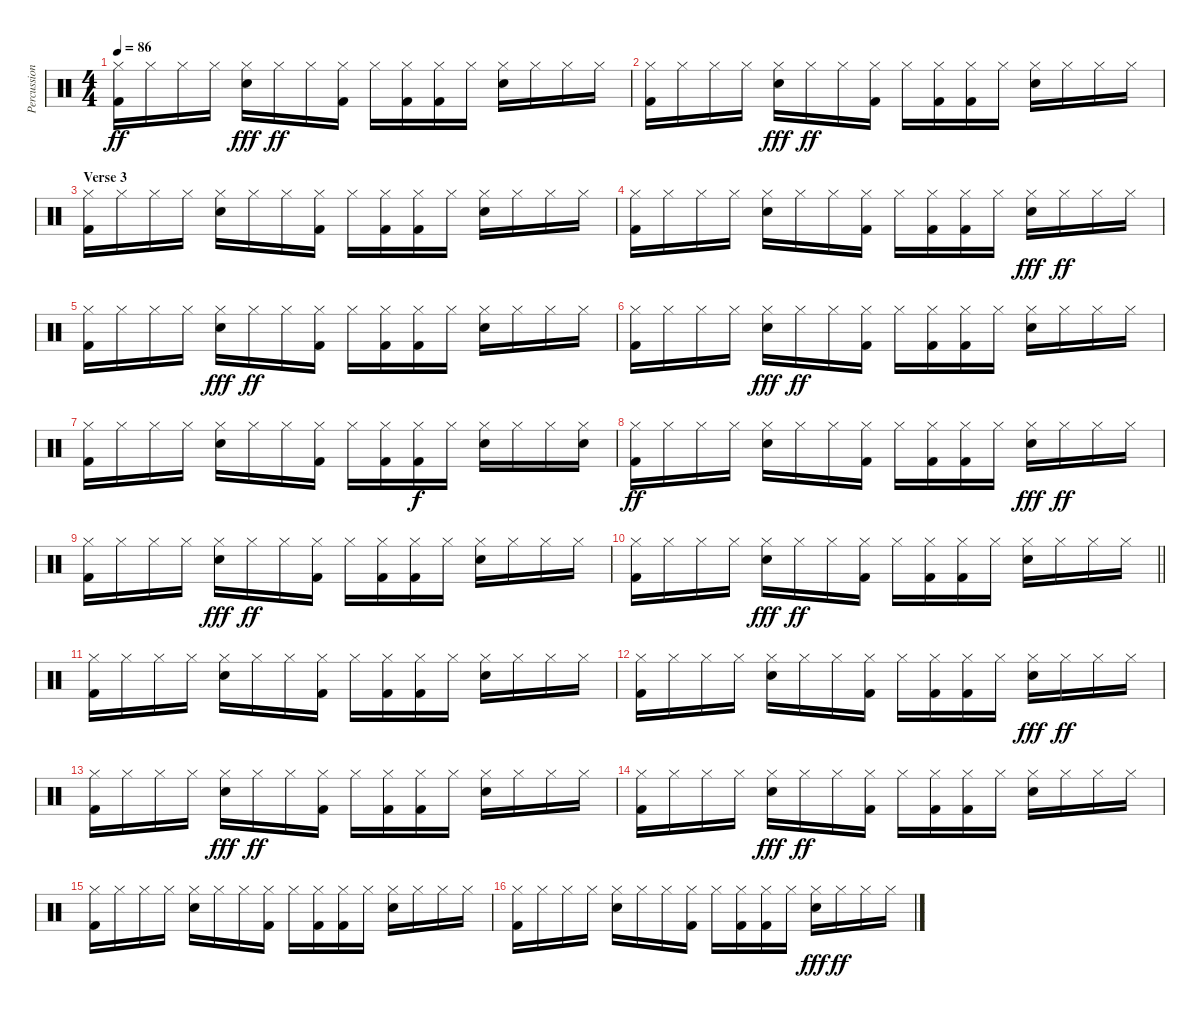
\track ("Percussion" "Percussion") {instrument percussion}
\staff {score}
\articulation defaults
\ts (4 4)
\tempo 86
\clef neutral
\ks c
("Hi-Hat (closed)" "Kick (hit) 2").16{dy ff} "Hi-Hat (closed)".16 "Hi-Hat (closed)".16 "Hi-Hat (closed)".16 ("Snare (hit) 2" "Hi-Hat (closed)").16{dy fff} "Hi-Hat (closed)".16{dy ff} "Hi-Hat (closed)".16 ("Hi-Hat (closed)" "Kick (hit) 2").16 "Hi-Hat (closed)".16 ("Kick (hit) 2" "Hi-Hat (closed)").16 ("Kick (hit) 2" "Hi-Hat (closed)").16 "Hi-Hat (closed)".16 ("Hi-Hat (closed)" "Snare (hit) 2").16 "Hi-Hat (closed)".16 "Hi-Hat (closed)".16 "Hi-Hat (closed)".16 |
("Hi-Hat (closed)" "Kick (hit) 2").16 "Hi-Hat (closed)".16 "Hi-Hat (closed)".16 "Hi-Hat (closed)".16 ("Snare (hit) 2" "Hi-Hat (closed)").16{dy fff} "Hi-Hat (closed)".16{dy ff} "Hi-Hat (closed)".16 ("Hi-Hat (closed)" "Kick (hit) 2").16 "Hi-Hat (closed)".16 ("Kick (hit) 2" "Hi-Hat (closed)").16 ("Kick (hit) 2" "Hi-Hat (closed)").16 "Hi-Hat (closed)".16 ("Hi-Hat (closed)" "Snare (hit) 2").16 "Hi-Hat (closed)".16 "Hi-Hat (closed)".16 "Hi-Hat (closed)".16 |
\section ("" "Verse 3")
("Hi-Hat (closed)" "Kick (hit) 2").16 "Hi-Hat (closed)".16 "Hi-Hat (closed)".16 "Hi-Hat (closed)".16 ("Hi-Hat (closed)" "Snare (hit) 2").16 "Hi-Hat (closed)".16 "Hi-Hat (closed)".16 ("Hi-Hat (closed)" "Kick (hit) 2").16 "Hi-Hat (closed)".16 ("Hi-Hat (closed)" "Kick (hit) 2").16 ("Hi-Hat (closed)" "Kick (hit) 2").16 "Hi-Hat (closed)".16 ("Hi-Hat (closed)" "Snare (hit) 2").16 "Hi-Hat (closed)".16 "Hi-Hat (closed)".16 "Hi-Hat (closed)".16 |
("Hi-Hat (closed)" "Kick (hit) 2").16 "Hi-Hat (closed)".16 "Hi-Hat (closed)".16 "Hi-Hat (closed)".16 ("Hi-Hat (closed)" "Snare (hit) 2").16 "Hi-Hat (closed)".16 "Hi-Hat (closed)".16 ("Hi-Hat (closed)" "Kick (hit) 2").16 "Hi-Hat (closed)".16 ("Hi-Hat (closed)" "Kick (hit) 2").16 ("Hi-Hat (closed)" "Kick (hit) 2").16 "Hi-Hat (closed)".16 ("Hi-Hat (closed)" "Snare (hit) 2").16{dy fff} "Hi-Hat (closed)".16{dy ff} "Hi-Hat (closed)".16 "Hi-Hat (closed)".16 |
("Hi-Hat (closed)" "Kick (hit) 2").16 "Hi-Hat (closed)".16 "Hi-Hat (closed)".16 "Hi-Hat (closed)".16 ("Snare (hit) 2" "Hi-Hat (closed)").16{dy fff} "Hi-Hat (closed)".16{dy ff} "Hi-Hat (closed)".16 ("Hi-Hat (closed)" "Kick (hit) 2").16 "Hi-Hat (closed)".16 ("Kick (hit) 2" "Hi-Hat (closed)").16 ("Kick (hit) 2" "Hi-Hat (closed)").16 "Hi-Hat (closed)".16 ("Hi-Hat (closed)" "Snare (hit) 2").16 "Hi-Hat (closed)".16 "Hi-Hat (closed)".16 "Hi-Hat (closed)".16 |
("Hi-Hat (closed)" "Kick (hit) 2").16 "Hi-Hat (closed)".16 "Hi-Hat (closed)".16 "Hi-Hat (closed)".16 ("Snare (hit) 2" "Hi-Hat (closed)").16{dy fff} "Hi-Hat (closed)".16{dy ff} "Hi-Hat (closed)".16 ("Hi-Hat (closed)" "Kick (hit) 2").16 "Hi-Hat (closed)".16 ("Kick (hit) 2" "Hi-Hat (closed)").16 ("Kick (hit) 2" "Hi-Hat (closed)").16 "Hi-Hat (closed)".16 ("Hi-Hat (closed)" "Snare (hit) 2").16 "Hi-Hat (closed)".16 "Hi-Hat (closed)".16 "Hi-Hat (closed)".16 |
("Hi-Hat (closed)" "Kick (hit) 2").16 "Hi-Hat (closed)".16 "Hi-Hat (closed)".16 "Hi-Hat (closed)".16 ("Hi-Hat (closed)" "Snare (hit) 2").16 "Hi-Hat (closed)".16 "Hi-Hat (closed)".16 ("Hi-Hat (closed)" "Kick (hit) 2").16 "Hi-Hat (closed)".16 ("Hi-Hat (closed)" "Kick (hit) 2").16 ("Hi-Hat (closed)" "Kick (hit) 2").16{dy f} "Hi-Hat (closed)".16 ("Hi-Hat (closed)" "Snare (hit) 2").16 "Hi-Hat (closed)".16 "Hi-Hat (closed)".16 ("Hi-Hat (closed)" "Snare (hit) 2").16 |
("Hi-Hat (closed)" "Kick (hit) 2").16{dy ff} "Hi-Hat (closed)".16 "Hi-Hat (closed)".16 "Hi-Hat (closed)".16 ("Hi-Hat (closed)" "Snare (hit) 2").16 "Hi-Hat (closed)".16 "Hi-Hat (closed)".16 ("Hi-Hat (closed)" "Kick (hit) 2").16 "Hi-Hat (closed)".16 ("Hi-Hat (closed)" "Kick (hit) 2").16 ("Hi-Hat (closed)" "Kick (hit) 2").16 "Hi-Hat (closed)".16 ("Hi-Hat (closed)" "Snare (hit) 2").16{dy fff} "Hi-Hat (closed)".16{dy ff} "Hi-Hat (closed)".16 "Hi-Hat (closed)".16 |
("Hi-Hat (closed)" "Kick (hit) 2").16 "Hi-Hat (closed)".16 "Hi-Hat (closed)".16 "Hi-Hat (closed)".16 ("Snare (hit) 2" "Hi-Hat (closed)").16{dy fff} "Hi-Hat (closed)".16{dy ff} "Hi-Hat (closed)".16 ("Hi-Hat (closed)" "Kick (hit) 2").16 "Hi-Hat (closed)".16 ("Kick (hit) 2" "Hi-Hat (closed)").16 ("Kick (hit) 2" "Hi-Hat (closed)").16 "Hi-Hat (closed)".16 ("Hi-Hat (closed)" "Snare (hit) 2").16 "Hi-Hat (closed)".16 "Hi-Hat (closed)".16 "Hi-Hat (closed)".16 |
\barLineRight lightlight
("Hi-Hat (closed)" "Kick (hit) 2").16 "Hi-Hat (closed)".16 "Hi-Hat (closed)".16 "Hi-Hat (closed)".16 ("Snare (hit) 2" "Hi-Hat (closed)").16{dy fff} "Hi-Hat (closed)".16{dy ff} "Hi-Hat (closed)".16 ("Hi-Hat (closed)" "Kick (hit) 2").16 "Hi-Hat (closed)".16 ("Kick (hit) 2" "Hi-Hat (closed)").16 ("Kick (hit) 2" "Hi-Hat (closed)").16 "Hi-Hat (closed)".16 ("Hi-Hat (closed)" "Snare (hit) 2").16 "Hi-Hat (closed)".16 "Hi-Hat (closed)".16 "Hi-Hat (closed)".16 |
("Hi-Hat (closed)" "Kick (hit) 2").16 "Hi-Hat (closed)".16 "Hi-Hat (closed)".16 "Hi-Hat (closed)".16 ("Hi-Hat (closed)" "Snare (hit) 2").16 "Hi-Hat (closed)".16 "Hi-Hat (closed)".16 ("Hi-Hat (closed)" "Kick (hit) 2").16 "Hi-Hat (closed)".16 ("Hi-Hat (closed)" "Kick (hit) 2").16 ("Hi-Hat (closed)" "Kick (hit) 2").16 "Hi-Hat (closed)".16 ("Hi-Hat (closed)" "Snare (hit) 2").16 "Hi-Hat (closed)".16 "Hi-Hat (closed)".16 "Hi-Hat (closed)".16 |
("Hi-Hat (closed)" "Kick (hit) 2").16 "Hi-Hat (closed)".16 "Hi-Hat (closed)".16 "Hi-Hat (closed)".16 ("Hi-Hat (closed)" "Snare (hit) 2").16 "Hi-Hat (closed)".16 "Hi-Hat (closed)".16 ("Hi-Hat (closed)" "Kick (hit) 2").16 "Hi-Hat (closed)".16 ("Hi-Hat (closed)" "Kick (hit) 2").16 ("Hi-Hat (closed)" "Kick (hit) 2").16 "Hi-Hat (closed)".16 ("Hi-Hat (closed)" "Snare (hit) 2").16{dy fff} "Hi-Hat (closed)".16{dy ff} "Hi-Hat (closed)".16 "Hi-Hat (closed)".16 |
("Hi-Hat (closed)" "Kick (hit) 2").16 "Hi-Hat (closed)".16 "Hi-Hat (closed)".16 "Hi-Hat (closed)".16 ("Snare (hit) 2" "Hi-Hat (closed)").16{dy fff} "Hi-Hat (closed)".16{dy ff} "Hi-Hat (closed)".16 ("Hi-Hat (closed)" "Kick (hit) 2").16 "Hi-Hat (closed)".16 ("Kick (hit) 2" "Hi-Hat (closed)").16 ("Kick (hit) 2" "Hi-Hat (closed)").16 "Hi-Hat (closed)".16 ("Hi-Hat (closed)" "Snare (hit) 2").16 "Hi-Hat (closed)".16 "Hi-Hat (closed)".16 "Hi-Hat (closed)".16 |
("Hi-Hat (closed)" "Kick (hit) 2").16 "Hi-Hat (closed)".16 "Hi-Hat (closed)".16 "Hi-Hat (closed)".16 ("Snare (hit) 2" "Hi-Hat (closed)").16{dy fff} "Hi-Hat (closed)".16{dy ff} "Hi-Hat (closed)".16 ("Hi-Hat (closed)" "Kick (hit) 2").16 "Hi-Hat (closed)".16 ("Kick (hit) 2" "Hi-Hat (closed)").16 ("Kick (hit) 2" "Hi-Hat (closed)").16 "Hi-Hat (closed)".16 ("Hi-Hat (closed)" "Snare (hit) 2").16 "Hi-Hat (closed)".16 "Hi-Hat (closed)".16 "Hi-Hat (closed)".16 |
("Hi-Hat (closed)" "Kick (hit) 2").16 "Hi-Hat (closed)".16 "Hi-Hat (closed)".16 "Hi-Hat (closed)".16 ("Hi-Hat (closed)" "Snare (hit) 2").16 "Hi-Hat (closed)".16 "Hi-Hat (closed)".16 ("Hi-Hat (closed)" "Kick (hit) 2").16 "Hi-Hat (closed)".16 ("Hi-Hat (closed)" "Kick (hit) 2").16 ("Hi-Hat (closed)" "Kick (hit) 2").16 "Hi-Hat (closed)".16 ("Hi-Hat (closed)" "Snare (hit) 2").16 "Hi-Hat (closed)".16 "Hi-Hat (closed)".16 "Hi-Hat (closed)".16 |
("Hi-Hat (closed)" "Kick (hit) 2").16 "Hi-Hat (closed)".16 "Hi-Hat (closed)".16 "Hi-Hat (closed)".16 ("Hi-Hat (closed)" "Snare (hit) 2").16 "Hi-Hat (closed)".16 "Hi-Hat (closed)".16 ("Hi-Hat (closed)" "Kick (hit) 2").16 "Hi-Hat (closed)".16 ("Hi-Hat (closed)" "Kick (hit) 2").16 ("Hi-Hat (closed)" "Kick (hit) 2").16 "Hi-Hat (closed)".16 ("Hi-Hat (closed)" "Snare (hit) 2").16{dy fff} "Hi-Hat (closed)".16{dy ff} "Hi-Hat (closed)".16 "Hi-Hat (closed)".16
